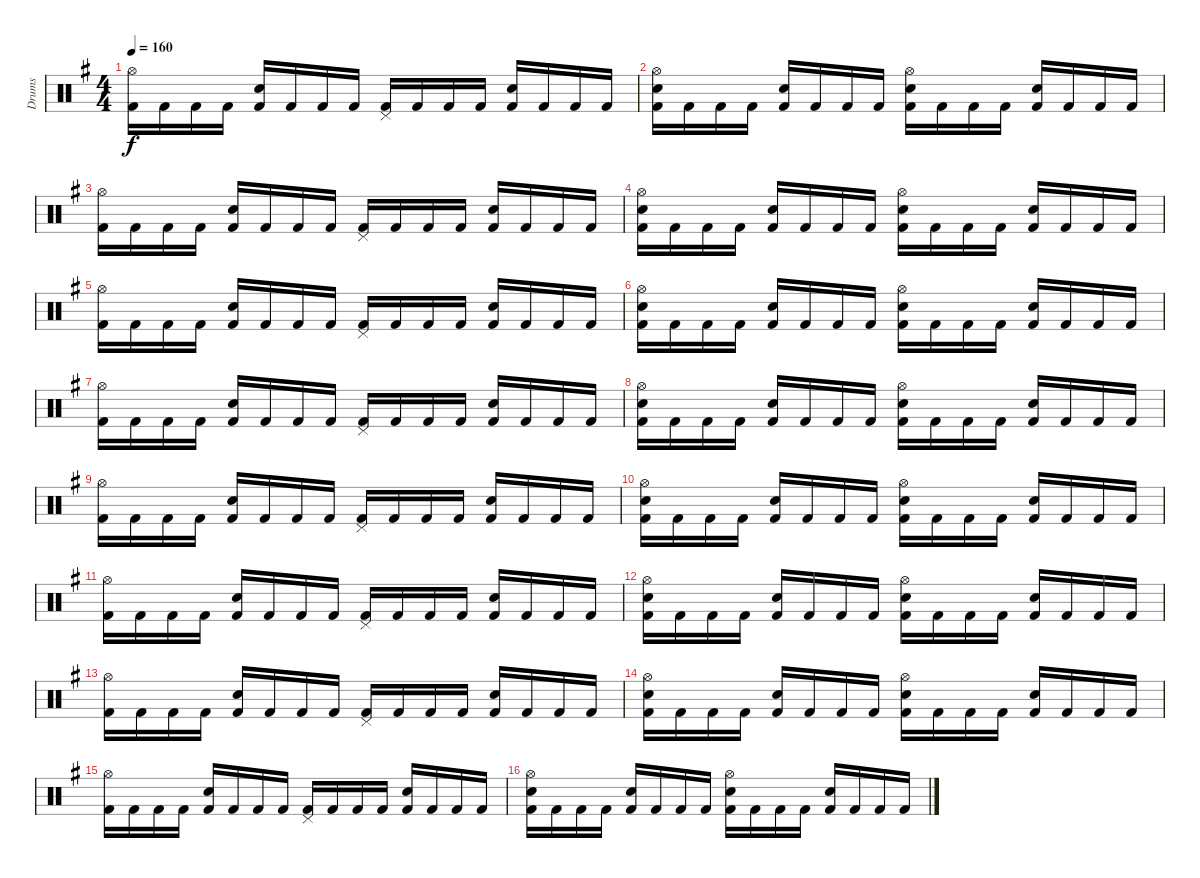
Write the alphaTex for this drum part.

\track ("Drums" "Drums") {instrument percussion}
\staff {score}
\articulation defaults
\ts (4 4)
\tempo 160
\clef neutral
\ks g
("Hi-Hat (open)" "Kick (hit) 2").16{dy f} "Kick (hit) 2".16 "Kick (hit) 2".16 "Kick (hit) 2".16 ("Snare (hit) 2" "Kick (hit) 2").16 "Kick (hit) 2".16 "Kick (hit) 2".16 "Kick (hit) 2".16 ("Pedal Hi-Hat (hit)" "Kick (hit) 2").16 "Kick (hit) 2".16 "Kick (hit) 2".16 "Kick (hit) 2".16 ("Snare (hit) 2" "Kick (hit) 2").16 "Kick (hit) 2".16 "Kick (hit) 2".16 "Kick (hit) 2".16 |
("Hi-Hat (open)" "Snare (hit) 2" "Kick (hit) 2").16 "Kick (hit) 2".16 "Kick (hit) 2".16 "Kick (hit) 2".16 ("Snare (hit) 2" "Kick (hit) 2").16 "Kick (hit) 2".16 "Kick (hit) 2".16 "Kick (hit) 2".16 ("Hi-Hat (open)" "Snare (hit) 2" "Kick (hit) 2").16 "Kick (hit) 2".16 "Kick (hit) 2".16 "Kick (hit) 2".16 ("Snare (hit) 2" "Kick (hit) 2").16 "Kick (hit) 2".16 "Kick (hit) 2".16 "Kick (hit) 2".16 |
("Hi-Hat (open)" "Kick (hit) 2").16 "Kick (hit) 2".16 "Kick (hit) 2".16 "Kick (hit) 2".16 ("Snare (hit) 2" "Kick (hit) 2").16 "Kick (hit) 2".16 "Kick (hit) 2".16 "Kick (hit) 2".16 ("Pedal Hi-Hat (hit)" "Kick (hit) 2").16 "Kick (hit) 2".16 "Kick (hit) 2".16 "Kick (hit) 2".16 ("Snare (hit) 2" "Kick (hit) 2").16 "Kick (hit) 2".16 "Kick (hit) 2".16 "Kick (hit) 2".16 |
("Hi-Hat (open)" "Snare (hit) 2" "Kick (hit) 2").16 "Kick (hit) 2".16 "Kick (hit) 2".16 "Kick (hit) 2".16 ("Snare (hit) 2" "Kick (hit) 2").16 "Kick (hit) 2".16 "Kick (hit) 2".16 "Kick (hit) 2".16 ("Hi-Hat (open)" "Snare (hit) 2" "Kick (hit) 2").16 "Kick (hit) 2".16 "Kick (hit) 2".16 "Kick (hit) 2".16 ("Snare (hit) 2" "Kick (hit) 2").16 "Kick (hit) 2".16 "Kick (hit) 2".16 "Kick (hit) 2".16 |
("Hi-Hat (open)" "Kick (hit) 2").16 "Kick (hit) 2".16 "Kick (hit) 2".16 "Kick (hit) 2".16 ("Snare (hit) 2" "Kick (hit) 2").16 "Kick (hit) 2".16 "Kick (hit) 2".16 "Kick (hit) 2".16 ("Pedal Hi-Hat (hit)" "Kick (hit) 2").16 "Kick (hit) 2".16 "Kick (hit) 2".16 "Kick (hit) 2".16 ("Snare (hit) 2" "Kick (hit) 2").16 "Kick (hit) 2".16 "Kick (hit) 2".16 "Kick (hit) 2".16 |
("Hi-Hat (open)" "Snare (hit) 2" "Kick (hit) 2").16 "Kick (hit) 2".16 "Kick (hit) 2".16 "Kick (hit) 2".16 ("Snare (hit) 2" "Kick (hit) 2").16 "Kick (hit) 2".16 "Kick (hit) 2".16 "Kick (hit) 2".16 ("Hi-Hat (open)" "Snare (hit) 2" "Kick (hit) 2").16 "Kick (hit) 2".16 "Kick (hit) 2".16 "Kick (hit) 2".16 ("Snare (hit) 2" "Kick (hit) 2").16 "Kick (hit) 2".16 "Kick (hit) 2".16 "Kick (hit) 2".16 |
("Hi-Hat (open)" "Kick (hit) 2").16 "Kick (hit) 2".16 "Kick (hit) 2".16 "Kick (hit) 2".16 ("Snare (hit) 2" "Kick (hit) 2").16 "Kick (hit) 2".16 "Kick (hit) 2".16 "Kick (hit) 2".16 ("Pedal Hi-Hat (hit)" "Kick (hit) 2").16 "Kick (hit) 2".16 "Kick (hit) 2".16 "Kick (hit) 2".16 ("Snare (hit) 2" "Kick (hit) 2").16 "Kick (hit) 2".16 "Kick (hit) 2".16 "Kick (hit) 2".16 |
("Hi-Hat (open)" "Snare (hit) 2" "Kick (hit) 2").16 "Kick (hit) 2".16 "Kick (hit) 2".16 "Kick (hit) 2".16 ("Snare (hit) 2" "Kick (hit) 2").16 "Kick (hit) 2".16 "Kick (hit) 2".16 "Kick (hit) 2".16 ("Hi-Hat (open)" "Snare (hit) 2" "Kick (hit) 2").16 "Kick (hit) 2".16 "Kick (hit) 2".16 "Kick (hit) 2".16 ("Snare (hit) 2" "Kick (hit) 2").16 "Kick (hit) 2".16 "Kick (hit) 2".16 "Kick (hit) 2".16 |
("Hi-Hat (open)" "Kick (hit) 2").16 "Kick (hit) 2".16 "Kick (hit) 2".16 "Kick (hit) 2".16 ("Snare (hit) 2" "Kick (hit) 2").16 "Kick (hit) 2".16 "Kick (hit) 2".16 "Kick (hit) 2".16 ("Pedal Hi-Hat (hit)" "Kick (hit) 2").16 "Kick (hit) 2".16 "Kick (hit) 2".16 "Kick (hit) 2".16 ("Snare (hit) 2" "Kick (hit) 2").16 "Kick (hit) 2".16 "Kick (hit) 2".16 "Kick (hit) 2".16 |
("Hi-Hat (open)" "Snare (hit) 2" "Kick (hit) 2").16 "Kick (hit) 2".16 "Kick (hit) 2".16 "Kick (hit) 2".16 ("Snare (hit) 2" "Kick (hit) 2").16 "Kick (hit) 2".16 "Kick (hit) 2".16 "Kick (hit) 2".16 ("Hi-Hat (open)" "Snare (hit) 2" "Kick (hit) 2").16 "Kick (hit) 2".16 "Kick (hit) 2".16 "Kick (hit) 2".16 ("Snare (hit) 2" "Kick (hit) 2").16 "Kick (hit) 2".16 "Kick (hit) 2".16 "Kick (hit) 2".16 |
("Hi-Hat (open)" "Kick (hit) 2").16 "Kick (hit) 2".16 "Kick (hit) 2".16 "Kick (hit) 2".16 ("Snare (hit) 2" "Kick (hit) 2").16 "Kick (hit) 2".16 "Kick (hit) 2".16 "Kick (hit) 2".16 ("Pedal Hi-Hat (hit)" "Kick (hit) 2").16 "Kick (hit) 2".16 "Kick (hit) 2".16 "Kick (hit) 2".16 ("Snare (hit) 2" "Kick (hit) 2").16 "Kick (hit) 2".16 "Kick (hit) 2".16 "Kick (hit) 2".16 |
("Hi-Hat (open)" "Snare (hit) 2" "Kick (hit) 2").16 "Kick (hit) 2".16 "Kick (hit) 2".16 "Kick (hit) 2".16 ("Snare (hit) 2" "Kick (hit) 2").16 "Kick (hit) 2".16 "Kick (hit) 2".16 "Kick (hit) 2".16 ("Hi-Hat (open)" "Snare (hit) 2" "Kick (hit) 2").16 "Kick (hit) 2".16 "Kick (hit) 2".16 "Kick (hit) 2".16 ("Snare (hit) 2" "Kick (hit) 2").16 "Kick (hit) 2".16 "Kick (hit) 2".16 "Kick (hit) 2".16 |
("Hi-Hat (open)" "Kick (hit) 2").16 "Kick (hit) 2".16 "Kick (hit) 2".16 "Kick (hit) 2".16 ("Snare (hit) 2" "Kick (hit) 2").16 "Kick (hit) 2".16 "Kick (hit) 2".16 "Kick (hit) 2".16 ("Pedal Hi-Hat (hit)" "Kick (hit) 2").16 "Kick (hit) 2".16 "Kick (hit) 2".16 "Kick (hit) 2".16 ("Snare (hit) 2" "Kick (hit) 2").16 "Kick (hit) 2".16 "Kick (hit) 2".16 "Kick (hit) 2".16 |
("Hi-Hat (open)" "Snare (hit) 2" "Kick (hit) 2").16 "Kick (hit) 2".16 "Kick (hit) 2".16 "Kick (hit) 2".16 ("Snare (hit) 2" "Kick (hit) 2").16 "Kick (hit) 2".16 "Kick (hit) 2".16 "Kick (hit) 2".16 ("Hi-Hat (open)" "Snare (hit) 2" "Kick (hit) 2").16 "Kick (hit) 2".16 "Kick (hit) 2".16 "Kick (hit) 2".16 ("Snare (hit) 2" "Kick (hit) 2").16 "Kick (hit) 2".16 "Kick (hit) 2".16 "Kick (hit) 2".16 |
("Hi-Hat (open)" "Kick (hit) 2").16 "Kick (hit) 2".16 "Kick (hit) 2".16 "Kick (hit) 2".16 ("Snare (hit) 2" "Kick (hit) 2").16 "Kick (hit) 2".16 "Kick (hit) 2".16 "Kick (hit) 2".16 ("Pedal Hi-Hat (hit)" "Kick (hit) 2").16 "Kick (hit) 2".16 "Kick (hit) 2".16 "Kick (hit) 2".16 ("Snare (hit) 2" "Kick (hit) 2").16 "Kick (hit) 2".16 "Kick (hit) 2".16 "Kick (hit) 2".16 |
("Hi-Hat (open)" "Snare (hit) 2" "Kick (hit) 2").16 "Kick (hit) 2".16 "Kick (hit) 2".16 "Kick (hit) 2".16 ("Snare (hit) 2" "Kick (hit) 2").16 "Kick (hit) 2".16 "Kick (hit) 2".16 "Kick (hit) 2".16 ("Hi-Hat (open)" "Snare (hit) 2" "Kick (hit) 2").16 "Kick (hit) 2".16 "Kick (hit) 2".16 "Kick (hit) 2".16 ("Snare (hit) 2" "Kick (hit) 2").16 "Kick (hit) 2".16 "Kick (hit) 2".16 "Kick (hit) 2".16
